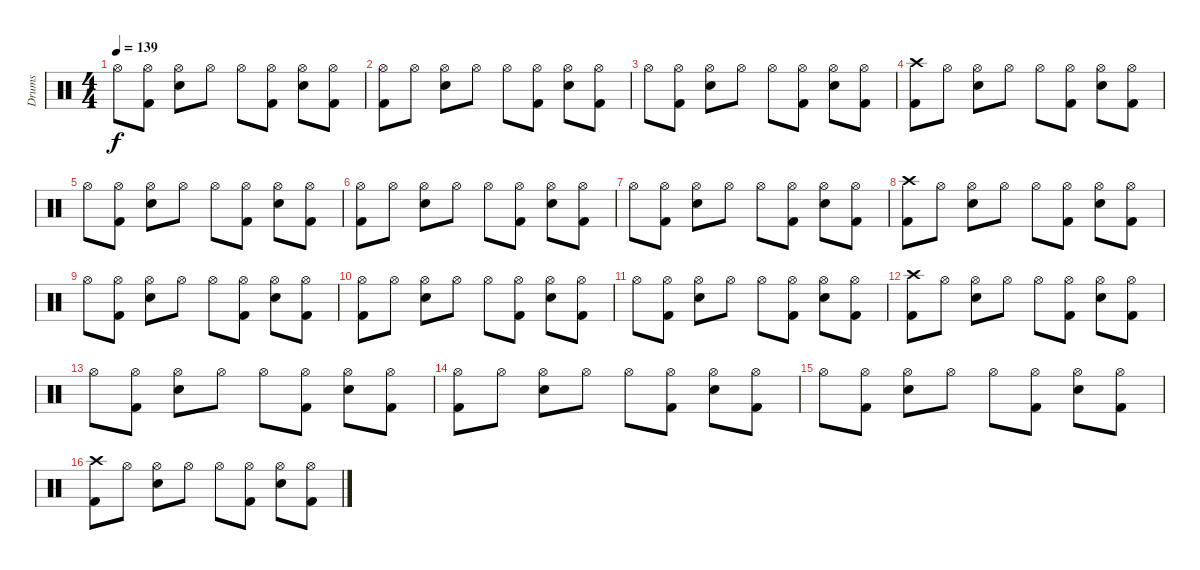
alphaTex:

\track ("Drums" "Drums") {instrument percussion}
\staff {score}
\articulation defaults
\ts (4 4)
\tempo 139
\clef neutral
\ks c "Hi-Hat (open)".8{dy f}
("Hi-Hat (open)" "Kick (hit) 2").8 ("Hi-Hat (open)" "Snare (hit) 2").8 "Hi-Hat (open)".8 "Hi-Hat (open)".8 ("Hi-Hat (open)" "Kick (hit) 2").8 ("Hi-Hat (open)" "Snare (hit) 2").8 ("Hi-Hat (open)" "Kick (hit) 2").8 |
("Hi-Hat (open)" "Kick (hit) 2").8 "Hi-Hat (open)".8 ("Hi-Hat (open)" "Snare (hit) 2").8 "Hi-Hat (open)".8 "Hi-Hat (open)".8 ("Hi-Hat (open)" "Kick (hit) 2").8 ("Hi-Hat (open)" "Snare (hit) 2").8 ("Hi-Hat (open)" "Kick (hit) 2").8 |
"Hi-Hat (open)".8 ("Hi-Hat (open)" "Kick (hit) 2").8 ("Hi-Hat (open)" "Snare (hit) 2").8 "Hi-Hat (open)".8 "Hi-Hat (open)".8 ("Hi-Hat (open)" "Kick (hit) 2").8 ("Hi-Hat (open)" "Snare (hit) 2").8 ("Hi-Hat (open)" "Kick (hit) 2").8 |
("Crash high (hit)" "Kick (hit) 2").8 "Hi-Hat (open)".8 ("Hi-Hat (open)" "Snare (hit) 2").8 "Hi-Hat (open)".8 "Hi-Hat (open)".8 ("Hi-Hat (open)" "Kick (hit) 2").8 ("Hi-Hat (open)" "Snare (hit) 2").8 ("Hi-Hat (open)" "Kick (hit) 2").8 |
"Hi-Hat (open)".8 ("Hi-Hat (open)" "Kick (hit) 2").8 ("Hi-Hat (open)" "Snare (hit) 2").8 "Hi-Hat (open)".8 "Hi-Hat (open)".8 ("Hi-Hat (open)" "Kick (hit) 2").8 ("Hi-Hat (open)" "Snare (hit) 2").8 ("Hi-Hat (open)" "Kick (hit) 2").8 |
("Hi-Hat (open)" "Kick (hit) 2").8 "Hi-Hat (open)".8 ("Hi-Hat (open)" "Snare (hit) 2").8 "Hi-Hat (open)".8 "Hi-Hat (open)".8 ("Hi-Hat (open)" "Kick (hit) 2").8 ("Hi-Hat (open)" "Snare (hit) 2").8 ("Hi-Hat (open)" "Kick (hit) 2").8 |
"Hi-Hat (open)".8 ("Hi-Hat (open)" "Kick (hit) 2").8 ("Hi-Hat (open)" "Snare (hit) 2").8 "Hi-Hat (open)".8 "Hi-Hat (open)".8 ("Hi-Hat (open)" "Kick (hit) 2").8 ("Hi-Hat (open)" "Snare (hit) 2").8 ("Hi-Hat (open)" "Kick (hit) 2").8 |
("Crash high (hit)" "Kick (hit) 2").8 "Hi-Hat (open)".8 ("Hi-Hat (open)" "Snare (hit) 2").8 "Hi-Hat (open)".8 "Hi-Hat (open)".8 ("Hi-Hat (open)" "Kick (hit) 2").8 ("Hi-Hat (open)" "Snare (hit) 2").8 ("Hi-Hat (open)" "Kick (hit) 2").8 |
"Hi-Hat (open)".8 ("Hi-Hat (open)" "Kick (hit) 2").8 ("Hi-Hat (open)" "Snare (hit) 2").8 "Hi-Hat (open)".8 "Hi-Hat (open)".8 ("Hi-Hat (open)" "Kick (hit) 2").8 ("Hi-Hat (open)" "Snare (hit) 2").8 ("Hi-Hat (open)" "Kick (hit) 2").8 |
("Hi-Hat (open)" "Kick (hit) 2").8 "Hi-Hat (open)".8 ("Hi-Hat (open)" "Snare (hit) 2").8 "Hi-Hat (open)".8 "Hi-Hat (open)".8 ("Hi-Hat (open)" "Kick (hit) 2").8 ("Hi-Hat (open)" "Snare (hit) 2").8 ("Hi-Hat (open)" "Kick (hit) 2").8 |
"Hi-Hat (open)".8 ("Hi-Hat (open)" "Kick (hit) 2").8 ("Hi-Hat (open)" "Snare (hit) 2").8 "Hi-Hat (open)".8 "Hi-Hat (open)".8 ("Hi-Hat (open)" "Kick (hit) 2").8 ("Hi-Hat (open)" "Snare (hit) 2").8 ("Hi-Hat (open)" "Kick (hit) 2").8 |
("Crash high (hit)" "Kick (hit) 2").8 "Hi-Hat (open)".8 ("Hi-Hat (open)" "Snare (hit) 2").8 "Hi-Hat (open)".8 "Hi-Hat (open)".8 ("Hi-Hat (open)" "Kick (hit) 2").8 ("Hi-Hat (open)" "Snare (hit) 2").8 ("Hi-Hat (open)" "Kick (hit) 2").8 |
"Hi-Hat (open)".8 ("Hi-Hat (open)" "Kick (hit) 2").8 ("Hi-Hat (open)" "Snare (hit) 2").8 "Hi-Hat (open)".8 "Hi-Hat (open)".8 ("Hi-Hat (open)" "Kick (hit) 2").8 ("Hi-Hat (open)" "Snare (hit) 2").8 ("Hi-Hat (open)" "Kick (hit) 2").8 |
("Hi-Hat (open)" "Kick (hit) 2").8 "Hi-Hat (open)".8 ("Hi-Hat (open)" "Snare (hit) 2").8 "Hi-Hat (open)".8 "Hi-Hat (open)".8 ("Hi-Hat (open)" "Kick (hit) 2").8 ("Hi-Hat (open)" "Snare (hit) 2").8 ("Hi-Hat (open)" "Kick (hit) 2").8 |
"Hi-Hat (open)".8 ("Hi-Hat (open)" "Kick (hit) 2").8 ("Hi-Hat (open)" "Snare (hit) 2").8 "Hi-Hat (open)".8 "Hi-Hat (open)".8 ("Hi-Hat (open)" "Kick (hit) 2").8 ("Hi-Hat (open)" "Snare (hit) 2").8 ("Hi-Hat (open)" "Kick (hit) 2").8 |
("Crash high (hit)" "Kick (hit) 2").8 "Hi-Hat (open)".8 ("Hi-Hat (open)" "Snare (hit) 2").8 "Hi-Hat (open)".8 "Hi-Hat (open)".8 ("Hi-Hat (open)" "Kick (hit) 2").8 ("Hi-Hat (open)" "Snare (hit) 2").8 ("Hi-Hat (open)" "Kick (hit) 2").8
